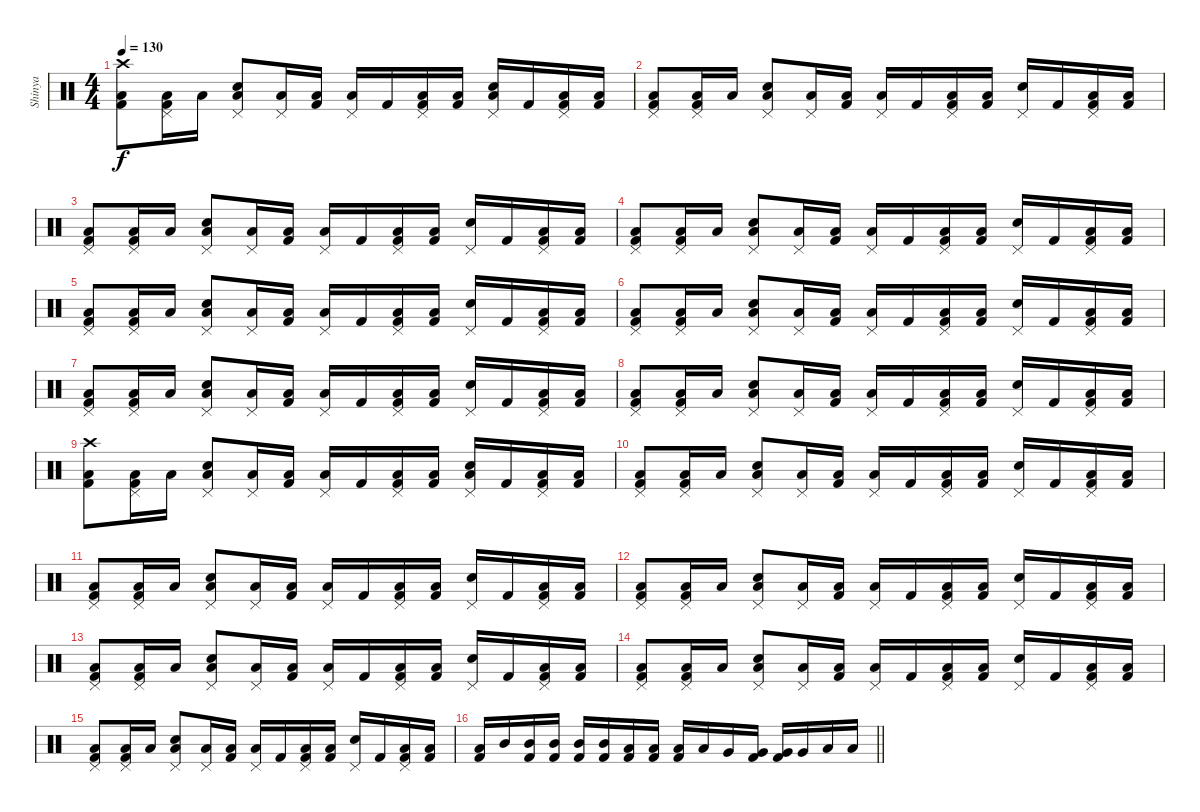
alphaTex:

\track ("Shinya" "Shinya") {instrument percussion}
\staff {score}
\articulation defaults
\ts (4 4)
\tempo 130
\clef neutral
\ks c
("Crash high (hit)" "Low Floor Tom (hit)" "Kick (hit) 2").8{dy f} ("Pedal Hi-Hat (hit)" "Low Floor Tom (hit)" "Kick (hit) 2").16 "Low Floor Tom (hit)".16 ("Pedal Hi-Hat (hit)" "Electric Snare (hit)" "Low Floor Tom (hit)").8 ("Pedal Hi-Hat (hit)" "Low Floor Tom (hit)").16 ("Low Floor Tom (hit)" "Kick (hit) 2").16 ("Pedal Hi-Hat (hit)" "Low Floor Tom (hit)").16 "Kick (hit) 2".16 ("Pedal Hi-Hat (hit)" "Low Floor Tom (hit)" "Kick (hit) 2").16 ("Low Floor Tom (hit)" "Kick (hit) 2").16 ("Pedal Hi-Hat (hit)" "Electric Snare (hit)" "Low Floor Tom (hit)").16 "Kick (hit) 2".16 ("Pedal Hi-Hat (hit)" "Low Floor Tom (hit)" "Kick (hit) 2").16 ("Low Floor Tom (hit)" "Kick (hit) 2").16 |
("Pedal Hi-Hat (hit)" "Low Floor Tom (hit)" "Kick (hit) 2").8 ("Pedal Hi-Hat (hit)" "Low Floor Tom (hit)" "Kick (hit) 2").16 "Low Floor Tom (hit)".16 ("Pedal Hi-Hat (hit)" "Electric Snare (hit)" "Low Floor Tom (hit)").8 ("Pedal Hi-Hat (hit)" "Low Floor Tom (hit)").16 ("Low Floor Tom (hit)" "Kick (hit) 2").16 ("Pedal Hi-Hat (hit)" "Low Floor Tom (hit)").16 "Kick (hit) 2".16 ("Pedal Hi-Hat (hit)" "Low Floor Tom (hit)" "Kick (hit) 2").16 ("Low Floor Tom (hit)" "Kick (hit) 2").16 ("Pedal Hi-Hat (hit)" "Electric Snare (hit)").16 "Kick (hit) 2".16 ("Pedal Hi-Hat (hit)" "Low Floor Tom (hit)" "Kick (hit) 2").16 ("Low Floor Tom (hit)" "Kick (hit) 2").16 |
("Pedal Hi-Hat (hit)" "Low Floor Tom (hit)" "Kick (hit) 2").8 ("Pedal Hi-Hat (hit)" "Low Floor Tom (hit)" "Kick (hit) 2").16 "Low Floor Tom (hit)".16 ("Pedal Hi-Hat (hit)" "Electric Snare (hit)" "Low Floor Tom (hit)").8 ("Pedal Hi-Hat (hit)" "Low Floor Tom (hit)").16 ("Low Floor Tom (hit)" "Kick (hit) 2").16 ("Pedal Hi-Hat (hit)" "Low Floor Tom (hit)").16 "Kick (hit) 2".16 ("Pedal Hi-Hat (hit)" "Low Floor Tom (hit)" "Kick (hit) 2").16 ("Low Floor Tom (hit)" "Kick (hit) 2").16 ("Pedal Hi-Hat (hit)" "Electric Snare (hit)").16 "Kick (hit) 2".16 ("Pedal Hi-Hat (hit)" "Low Floor Tom (hit)" "Kick (hit) 2").16 ("Low Floor Tom (hit)" "Kick (hit) 2").16 |
("Pedal Hi-Hat (hit)" "Low Floor Tom (hit)" "Kick (hit) 2").8 ("Pedal Hi-Hat (hit)" "Low Floor Tom (hit)" "Kick (hit) 2").16 "Low Floor Tom (hit)".16 ("Pedal Hi-Hat (hit)" "Electric Snare (hit)" "Low Floor Tom (hit)").8 ("Pedal Hi-Hat (hit)" "Low Floor Tom (hit)").16 ("Low Floor Tom (hit)" "Kick (hit) 2").16 ("Pedal Hi-Hat (hit)" "Low Floor Tom (hit)").16 "Kick (hit) 2".16 ("Pedal Hi-Hat (hit)" "Low Floor Tom (hit)" "Kick (hit) 2").16 ("Low Floor Tom (hit)" "Kick (hit) 2").16 ("Pedal Hi-Hat (hit)" "Electric Snare (hit)").16 "Kick (hit) 2".16 ("Pedal Hi-Hat (hit)" "Low Floor Tom (hit)" "Kick (hit) 2").16 ("Low Floor Tom (hit)" "Kick (hit) 2").16 |
("Pedal Hi-Hat (hit)" "Low Floor Tom (hit)" "Kick (hit) 2").8 ("Pedal Hi-Hat (hit)" "Low Floor Tom (hit)" "Kick (hit) 2").16 "Low Floor Tom (hit)".16 ("Pedal Hi-Hat (hit)" "Electric Snare (hit)" "Low Floor Tom (hit)").8 ("Pedal Hi-Hat (hit)" "Low Floor Tom (hit)").16 ("Low Floor Tom (hit)" "Kick (hit) 2").16 ("Pedal Hi-Hat (hit)" "Low Floor Tom (hit)").16 "Kick (hit) 2".16 ("Pedal Hi-Hat (hit)" "Low Floor Tom (hit)" "Kick (hit) 2").16 ("Low Floor Tom (hit)" "Kick (hit) 2").16 ("Pedal Hi-Hat (hit)" "Electric Snare (hit)").16 "Kick (hit) 2".16 ("Pedal Hi-Hat (hit)" "Low Floor Tom (hit)" "Kick (hit) 2").16 ("Low Floor Tom (hit)" "Kick (hit) 2").16 |
("Pedal Hi-Hat (hit)" "Low Floor Tom (hit)" "Kick (hit) 2").8 ("Pedal Hi-Hat (hit)" "Low Floor Tom (hit)" "Kick (hit) 2").16 "Low Floor Tom (hit)".16 ("Pedal Hi-Hat (hit)" "Electric Snare (hit)" "Low Floor Tom (hit)").8 ("Pedal Hi-Hat (hit)" "Low Floor Tom (hit)").16 ("Low Floor Tom (hit)" "Kick (hit) 2").16 ("Pedal Hi-Hat (hit)" "Low Floor Tom (hit)").16 "Kick (hit) 2".16 ("Pedal Hi-Hat (hit)" "Low Floor Tom (hit)" "Kick (hit) 2").16 ("Low Floor Tom (hit)" "Kick (hit) 2").16 ("Pedal Hi-Hat (hit)" "Electric Snare (hit)").16 "Kick (hit) 2".16 ("Pedal Hi-Hat (hit)" "Low Floor Tom (hit)" "Kick (hit) 2").16 ("Low Floor Tom (hit)" "Kick (hit) 2").16 |
("Pedal Hi-Hat (hit)" "Low Floor Tom (hit)" "Kick (hit) 2").8 ("Pedal Hi-Hat (hit)" "Low Floor Tom (hit)" "Kick (hit) 2").16 "Low Floor Tom (hit)".16 ("Pedal Hi-Hat (hit)" "Electric Snare (hit)" "Low Floor Tom (hit)").8 ("Pedal Hi-Hat (hit)" "Low Floor Tom (hit)").16 ("Low Floor Tom (hit)" "Kick (hit) 2").16 ("Pedal Hi-Hat (hit)" "Low Floor Tom (hit)").16 "Kick (hit) 2".16 ("Pedal Hi-Hat (hit)" "Low Floor Tom (hit)" "Kick (hit) 2").16 ("Low Floor Tom (hit)" "Kick (hit) 2").16 ("Pedal Hi-Hat (hit)" "Electric Snare (hit)").16 "Kick (hit) 2".16 ("Pedal Hi-Hat (hit)" "Low Floor Tom (hit)" "Kick (hit) 2").16 ("Low Floor Tom (hit)" "Kick (hit) 2").16 |
("Pedal Hi-Hat (hit)" "Low Floor Tom (hit)" "Kick (hit) 2").8 ("Pedal Hi-Hat (hit)" "Low Floor Tom (hit)" "Kick (hit) 2").16 "Low Floor Tom (hit)".16 ("Pedal Hi-Hat (hit)" "Electric Snare (hit)" "Low Floor Tom (hit)").8 ("Pedal Hi-Hat (hit)" "Low Floor Tom (hit)").16 ("Low Floor Tom (hit)" "Kick (hit) 2").16 ("Pedal Hi-Hat (hit)" "Low Floor Tom (hit)").16 "Kick (hit) 2".16 ("Pedal Hi-Hat (hit)" "Low Floor Tom (hit)" "Kick (hit) 2").16 ("Low Floor Tom (hit)" "Kick (hit) 2").16 ("Pedal Hi-Hat (hit)" "Electric Snare (hit)").16 "Kick (hit) 2".16 ("Pedal Hi-Hat (hit)" "Low Floor Tom (hit)" "Kick (hit) 2").16 ("Low Floor Tom (hit)" "Kick (hit) 2").16 |
("Crash high (hit)" "Low Floor Tom (hit)" "Kick (hit) 2").8 ("Pedal Hi-Hat (hit)" "Low Floor Tom (hit)" "Kick (hit) 2").16 "Low Floor Tom (hit)".16 ("Pedal Hi-Hat (hit)" "Electric Snare (hit)" "Low Floor Tom (hit)").8 ("Pedal Hi-Hat (hit)" "Low Floor Tom (hit)").16 ("Low Floor Tom (hit)" "Kick (hit) 2").16 ("Pedal Hi-Hat (hit)" "Low Floor Tom (hit)").16 "Kick (hit) 2".16 ("Pedal Hi-Hat (hit)" "Low Floor Tom (hit)" "Kick (hit) 2").16 ("Low Floor Tom (hit)" "Kick (hit) 2").16 ("Pedal Hi-Hat (hit)" "Electric Snare (hit)" "Low Floor Tom (hit)").16 "Kick (hit) 2".16 ("Pedal Hi-Hat (hit)" "Low Floor Tom (hit)" "Kick (hit) 2").16 ("Low Floor Tom (hit)" "Kick (hit) 2").16 |
("Pedal Hi-Hat (hit)" "Low Floor Tom (hit)" "Kick (hit) 2").8 ("Pedal Hi-Hat (hit)" "Low Floor Tom (hit)" "Kick (hit) 2").16 "Low Floor Tom (hit)".16 ("Pedal Hi-Hat (hit)" "Electric Snare (hit)" "Low Floor Tom (hit)").8 ("Pedal Hi-Hat (hit)" "Low Floor Tom (hit)").16 ("Low Floor Tom (hit)" "Kick (hit) 2").16 ("Pedal Hi-Hat (hit)" "Low Floor Tom (hit)").16 "Kick (hit) 2".16 ("Pedal Hi-Hat (hit)" "Low Floor Tom (hit)" "Kick (hit) 2").16 ("Low Floor Tom (hit)" "Kick (hit) 2").16 ("Pedal Hi-Hat (hit)" "Electric Snare (hit)").16 "Kick (hit) 2".16 ("Pedal Hi-Hat (hit)" "Low Floor Tom (hit)" "Kick (hit) 2").16 ("Low Floor Tom (hit)" "Kick (hit) 2").16 |
("Pedal Hi-Hat (hit)" "Low Floor Tom (hit)" "Kick (hit) 2").8 ("Pedal Hi-Hat (hit)" "Low Floor Tom (hit)" "Kick (hit) 2").16 "Low Floor Tom (hit)".16 ("Pedal Hi-Hat (hit)" "Electric Snare (hit)" "Low Floor Tom (hit)").8 ("Pedal Hi-Hat (hit)" "Low Floor Tom (hit)").16 ("Low Floor Tom (hit)" "Kick (hit) 2").16 ("Pedal Hi-Hat (hit)" "Low Floor Tom (hit)").16 "Kick (hit) 2".16 ("Pedal Hi-Hat (hit)" "Low Floor Tom (hit)" "Kick (hit) 2").16 ("Low Floor Tom (hit)" "Kick (hit) 2").16 ("Pedal Hi-Hat (hit)" "Electric Snare (hit)").16 "Kick (hit) 2".16 ("Pedal Hi-Hat (hit)" "Low Floor Tom (hit)" "Kick (hit) 2").16 ("Low Floor Tom (hit)" "Kick (hit) 2").16 |
("Pedal Hi-Hat (hit)" "Low Floor Tom (hit)" "Kick (hit) 2").8 ("Pedal Hi-Hat (hit)" "Low Floor Tom (hit)" "Kick (hit) 2").16 "Low Floor Tom (hit)".16 ("Pedal Hi-Hat (hit)" "Electric Snare (hit)" "Low Floor Tom (hit)").8 ("Pedal Hi-Hat (hit)" "Low Floor Tom (hit)").16 ("Low Floor Tom (hit)" "Kick (hit) 2").16 ("Pedal Hi-Hat (hit)" "Low Floor Tom (hit)").16 "Kick (hit) 2".16 ("Pedal Hi-Hat (hit)" "Low Floor Tom (hit)" "Kick (hit) 2").16 ("Low Floor Tom (hit)" "Kick (hit) 2").16 ("Pedal Hi-Hat (hit)" "Electric Snare (hit)").16 "Kick (hit) 2".16 ("Pedal Hi-Hat (hit)" "Low Floor Tom (hit)" "Kick (hit) 2").16 ("Low Floor Tom (hit)" "Kick (hit) 2").16 |
("Pedal Hi-Hat (hit)" "Low Floor Tom (hit)" "Kick (hit) 2").8 ("Pedal Hi-Hat (hit)" "Low Floor Tom (hit)" "Kick (hit) 2").16 "Low Floor Tom (hit)".16 ("Pedal Hi-Hat (hit)" "Electric Snare (hit)" "Low Floor Tom (hit)").8 ("Pedal Hi-Hat (hit)" "Low Floor Tom (hit)").16 ("Low Floor Tom (hit)" "Kick (hit) 2").16 ("Pedal Hi-Hat (hit)" "Low Floor Tom (hit)").16 "Kick (hit) 2".16 ("Pedal Hi-Hat (hit)" "Low Floor Tom (hit)" "Kick (hit) 2").16 ("Low Floor Tom (hit)" "Kick (hit) 2").16 ("Pedal Hi-Hat (hit)" "Electric Snare (hit)").16 "Kick (hit) 2".16 ("Pedal Hi-Hat (hit)" "Low Floor Tom (hit)" "Kick (hit) 2").16 ("Low Floor Tom (hit)" "Kick (hit) 2").16 |
("Pedal Hi-Hat (hit)" "Low Floor Tom (hit)" "Kick (hit) 2").8 ("Pedal Hi-Hat (hit)" "Low Floor Tom (hit)" "Kick (hit) 2").16 "Low Floor Tom (hit)".16 ("Pedal Hi-Hat (hit)" "Electric Snare (hit)" "Low Floor Tom (hit)").8 ("Pedal Hi-Hat (hit)" "Low Floor Tom (hit)").16 ("Low Floor Tom (hit)" "Kick (hit) 2").16 ("Pedal Hi-Hat (hit)" "Low Floor Tom (hit)").16 "Kick (hit) 2".16 ("Pedal Hi-Hat (hit)" "Low Floor Tom (hit)" "Kick (hit) 2").16 ("Low Floor Tom (hit)" "Kick (hit) 2").16 ("Pedal Hi-Hat (hit)" "Electric Snare (hit)").16 "Kick (hit) 2".16 ("Pedal Hi-Hat (hit)" "Low Floor Tom (hit)" "Kick (hit) 2").16 ("Low Floor Tom (hit)" "Kick (hit) 2").16 |
("Pedal Hi-Hat (hit)" "Low Floor Tom (hit)" "Kick (hit) 2").8 ("Pedal Hi-Hat (hit)" "Low Floor Tom (hit)" "Kick (hit) 2").16 "Low Floor Tom (hit)".16 ("Pedal Hi-Hat (hit)" "Electric Snare (hit)" "Low Floor Tom (hit)").8 ("Pedal Hi-Hat (hit)" "Low Floor Tom (hit)").16 ("Low Floor Tom (hit)" "Kick (hit) 2").16 ("Pedal Hi-Hat (hit)" "Low Floor Tom (hit)").16 "Kick (hit) 2".16 ("Pedal Hi-Hat (hit)" "Low Floor Tom (hit)" "Kick (hit) 2").16 ("Low Floor Tom (hit)" "Kick (hit) 2").16 ("Pedal Hi-Hat (hit)" "Electric Snare (hit)").16 "Kick (hit) 2".16 ("Pedal Hi-Hat (hit)" "Low Floor Tom (hit)" "Kick (hit) 2").16 ("Low Floor Tom (hit)" "Kick (hit) 2").16 |
\barLineRight lightlight
("Low Floor Tom (hit)" "Kick (hit) 2").16 "Mid Tom (hit)".16 ("Mid Tom (hit)" "Kick (hit) 2").16 ("Mid Tom (hit)" "Kick (hit) 2").16 ("Mid Tom (hit)" "Kick (hit) 2").16 ("Mid Tom (hit)" "Kick (hit) 2").16 ("Low Tom (hit)" "Kick (hit) 2").16 ("Low Tom (hit)" "Kick (hit) 2").16 ("Low Tom (hit)" "Kick (hit) 2").16 "Low Tom (hit)".16 "Very Low Tom (hit)".16 ("Very Low Tom (hit)" "Kick (hit) 2").16 ("Very Low Tom (hit)" "Kick (hit) 2").16 "Very Low Tom (hit)".16 "Low Floor Tom (hit)".16 "Low Floor Tom (hit)".16
